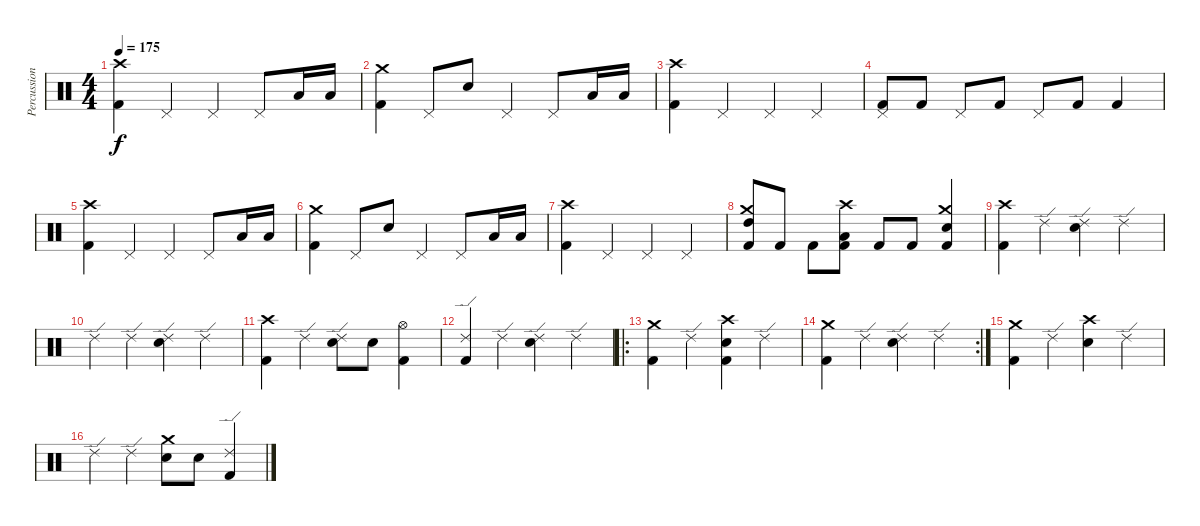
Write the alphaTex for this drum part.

\track ("Percussion" "Percussion") {instrument percussion}
\staff {score}
\articulation defaults
\ts (4 4)
\tempo 175
\clef neutral
\ks c
("Crash high (hit)" "Kick (hit) 2").4{dy f} "Pedal Hi-Hat (hit)".4 "Pedal Hi-Hat (hit)".4 "Pedal Hi-Hat (hit)".8 "Low Tom (hit)".16 "Low Tom (hit)".16 |
("Crash medium (hit)" "Kick (hit) 2").4 "Pedal Hi-Hat (hit)".8 "Snare (hit) 2".8 "Pedal Hi-Hat (hit)".4 "Pedal Hi-Hat (hit)".8 "Low Tom (hit)".16 "Low Tom (hit)".16 |
("Crash high (hit)" "Kick (hit) 2").4 "Pedal Hi-Hat (hit)".4 "Pedal Hi-Hat (hit)".4 "Pedal Hi-Hat (hit)".4 |
("Pedal Hi-Hat (hit)" "Kick (hit) 2").8 "Kick (hit) 2".8 "Pedal Hi-Hat (hit)".8 "Kick (hit) 2".8 "Pedal Hi-Hat (hit)".8 "Kick (hit) 2".8 "Kick (hit) 2".4 |
("Crash high (hit)" "Kick (hit) 2").4 "Pedal Hi-Hat (hit)".4 "Pedal Hi-Hat (hit)".4 "Pedal Hi-Hat (hit)".8 "Low Tom (hit)".16 "Low Tom (hit)".16 |
("Crash medium (hit)" "Kick (hit) 2").4 "Pedal Hi-Hat (hit)".8 "Snare (hit) 2".8 "Pedal Hi-Hat (hit)".4 "Pedal Hi-Hat (hit)".8 "Low Tom (hit)".16 "Low Tom (hit)".16 |
("Crash high (hit)" "Kick (hit) 2").4 "Pedal Hi-Hat (hit)".4 "Pedal Hi-Hat (hit)".4 "Pedal Hi-Hat (hit)".4 |
("Crash medium (hit)" "High Tom (hit)" "Kick (hit) 2").8 "Kick (hit) 2".8 "Kick (hit) 2".8 ("Crash high (hit)" "Low Tom (hit)" "Kick (hit) 2").8 "Kick (hit) 2".8 "Kick (hit) 2".8 ("Crash medium (hit)" "Snare (hit) 2" "Kick (hit) 2").4 |
("Crash high (hit)" "Kick (hit) 2").4 "Ride (edge) 2".4 ("Ride (edge) 2" "Snare (hit) 2").4 "Ride (edge) 2".4 |
"Ride (edge) 2".4 "Ride (edge) 2".4 ("Ride (edge) 2" "Snare (hit) 2").4 "Ride (edge) 2".4 |
("Crash high (hit)" "Kick (hit) 2").4 "Ride (edge) 2".4 ("Ride (edge) 2" "Snare (hit) 2").8 "Snare (hit) 2".8 ("Hi-Hat (open)" "Kick (hit) 2").4 |
("Ride (edge) 2" "Kick (hit) 2").4 "Ride (edge) 2".4 ("Ride (edge) 2" "Snare (hit) 2").4 "Ride (edge) 2".4 |
\ro
("Crash medium (hit)" "Kick (hit) 2").4 "Ride (edge) 2".4 ("Crash high (hit)" "Snare (hit) 2" "Kick (hit) 2").4 "Ride (edge) 2".4 |
\rc 2
("Crash medium (hit)" "Kick (hit) 2").4 "Ride (edge) 2".4 ("Ride (edge) 2" "Snare (hit) 2").4 "Ride (edge) 2".4 |
("Crash medium (hit)" "Kick (hit) 2").4 "Ride (edge) 2".4 ("Crash high (hit)" "Snare (hit) 2").4 "Ride (edge) 2".4 |
"Ride (edge) 2".4 "Ride (edge) 2".4 ("Crash medium (hit)" "Snare (hit) 2").8 "Snare (hit) 2".8 ("Ride (edge) 2" "Kick (hit) 2").4
